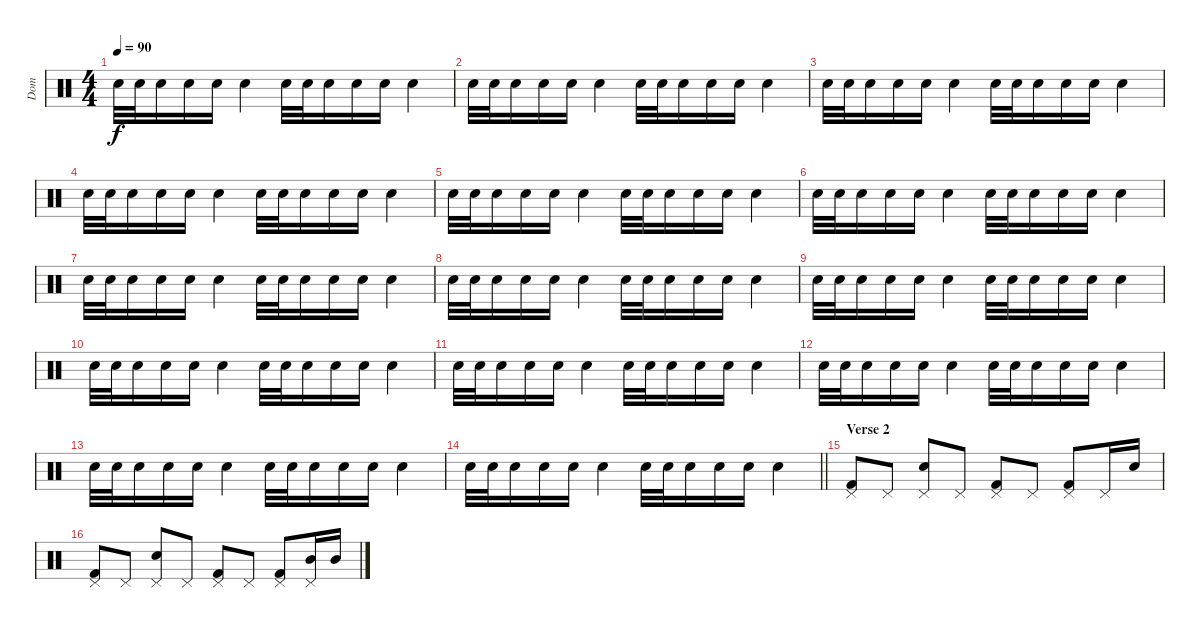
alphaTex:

\track ("Dom" "Dom") {instrument percussion}
\staff {score}
\articulation defaults
\ts (4 4)
\tempo 90
\clef neutral
\ks c "Electric Snare (hit)".32{dy f} "Electric Snare (hit)".32 "Electric Snare (hit)".16 "Electric Snare (hit)".16 "Electric Snare (hit)".16 "Electric Snare (hit)".4 "Electric Snare (hit)".32 "Electric Snare (hit)".32 "Electric Snare (hit)".16 "Electric Snare (hit)".16 "Electric Snare (hit)".16 "Electric Snare (hit)".4
|
"Electric Snare (hit)".32 "Electric Snare (hit)".32 "Electric Snare (hit)".16 "Electric Snare (hit)".16 "Electric Snare (hit)".16 "Electric Snare (hit)".4 "Electric Snare (hit)".32 "Electric Snare (hit)".32 "Electric Snare (hit)".16 "Electric Snare (hit)".16 "Electric Snare (hit)".16 "Electric Snare (hit)".4 |
"Electric Snare (hit)".32 "Electric Snare (hit)".32 "Electric Snare (hit)".16 "Electric Snare (hit)".16 "Electric Snare (hit)".16 "Electric Snare (hit)".4 "Electric Snare (hit)".32 "Electric Snare (hit)".32 "Electric Snare (hit)".16 "Electric Snare (hit)".16 "Electric Snare (hit)".16 "Electric Snare (hit)".4 |
"Electric Snare (hit)".32 "Electric Snare (hit)".32 "Electric Snare (hit)".16 "Electric Snare (hit)".16 "Electric Snare (hit)".16 "Electric Snare (hit)".4 "Electric Snare (hit)".32 "Electric Snare (hit)".32 "Electric Snare (hit)".16 "Electric Snare (hit)".16 "Electric Snare (hit)".16 "Electric Snare (hit)".4 |
"Electric Snare (hit)".32 "Electric Snare (hit)".32 "Electric Snare (hit)".16 "Electric Snare (hit)".16 "Electric Snare (hit)".16 "Electric Snare (hit)".4 "Electric Snare (hit)".32 "Electric Snare (hit)".32 "Electric Snare (hit)".16 "Electric Snare (hit)".16 "Electric Snare (hit)".16 "Electric Snare (hit)".4 |
"Electric Snare (hit)".32 "Electric Snare (hit)".32 "Electric Snare (hit)".16 "Electric Snare (hit)".16 "Electric Snare (hit)".16 "Electric Snare (hit)".4 "Electric Snare (hit)".32 "Electric Snare (hit)".32 "Electric Snare (hit)".16 "Electric Snare (hit)".16 "Electric Snare (hit)".16 "Electric Snare (hit)".4 |
"Electric Snare (hit)".32 "Electric Snare (hit)".32 "Electric Snare (hit)".16 "Electric Snare (hit)".16 "Electric Snare (hit)".16 "Electric Snare (hit)".4 "Electric Snare (hit)".32 "Electric Snare (hit)".32 "Electric Snare (hit)".16 "Electric Snare (hit)".16 "Electric Snare (hit)".16 "Electric Snare (hit)".4 |
"Electric Snare (hit)".32 "Electric Snare (hit)".32 "Electric Snare (hit)".16 "Electric Snare (hit)".16 "Electric Snare (hit)".16 "Electric Snare (hit)".4 "Electric Snare (hit)".32 "Electric Snare (hit)".32 "Electric Snare (hit)".16 "Electric Snare (hit)".16 "Electric Snare (hit)".16 "Electric Snare (hit)".4 |
"Electric Snare (hit)".32 "Electric Snare (hit)".32 "Electric Snare (hit)".16 "Electric Snare (hit)".16 "Electric Snare (hit)".16 "Electric Snare (hit)".4 "Electric Snare (hit)".32 "Electric Snare (hit)".32 "Electric Snare (hit)".16 "Electric Snare (hit)".16 "Electric Snare (hit)".16 "Electric Snare (hit)".4 |
"Electric Snare (hit)".32 "Electric Snare (hit)".32 "Electric Snare (hit)".16 "Electric Snare (hit)".16 "Electric Snare (hit)".16 "Electric Snare (hit)".4 "Electric Snare (hit)".32 "Electric Snare (hit)".32 "Electric Snare (hit)".16 "Electric Snare (hit)".16 "Electric Snare (hit)".16 "Electric Snare (hit)".4 |
"Electric Snare (hit)".32 "Electric Snare (hit)".32 "Electric Snare (hit)".16 "Electric Snare (hit)".16 "Electric Snare (hit)".16 "Electric Snare (hit)".4 "Electric Snare (hit)".32 "Electric Snare (hit)".32 "Electric Snare (hit)".16 "Electric Snare (hit)".16 "Electric Snare (hit)".16 "Electric Snare (hit)".4 |
"Electric Snare (hit)".32 "Electric Snare (hit)".32 "Electric Snare (hit)".16 "Electric Snare (hit)".16 "Electric Snare (hit)".16 "Electric Snare (hit)".4 "Electric Snare (hit)".32 "Electric Snare (hit)".32 "Electric Snare (hit)".16 "Electric Snare (hit)".16 "Electric Snare (hit)".16 "Electric Snare (hit)".4 |
"Electric Snare (hit)".32 "Electric Snare (hit)".32 "Electric Snare (hit)".16 "Electric Snare (hit)".16 "Electric Snare (hit)".16 "Electric Snare (hit)".4 "Electric Snare (hit)".32 "Electric Snare (hit)".32 "Electric Snare (hit)".16 "Electric Snare (hit)".16 "Electric Snare (hit)".16 "Electric Snare (hit)".4 |
\barLineRight lightlight "Electric Snare (hit)".32 "Electric Snare (hit)".32 "Electric Snare (hit)".16 "Electric Snare (hit)".16 "Electric Snare (hit)".16 "Electric Snare (hit)".4 "Electric Snare (hit)".32 "Electric Snare (hit)".32 "Electric Snare (hit)".16 "Electric Snare (hit)".16 "Electric Snare (hit)".16 "Electric Snare (hit)".4
|
\section ("" "Verse 2")
("Pedal Hi-Hat (hit)" "Kick (hit) 2").8 "Pedal Hi-Hat (hit)".8 ("Pedal Hi-Hat (hit)" "Electric Snare (hit)").8 "Pedal Hi-Hat (hit)".8 ("Pedal Hi-Hat (hit)" "Kick (hit) 2").8 "Pedal Hi-Hat (hit)".8 ("Pedal Hi-Hat (hit)" "Kick (hit) 2").8 "Pedal Hi-Hat (hit)".16 "Electric Snare (hit)".16 |
("Pedal Hi-Hat (hit)" "Kick (hit) 2").8 "Pedal Hi-Hat (hit)".8 ("Pedal Hi-Hat (hit)" "Electric Snare (hit)").8 "Pedal Hi-Hat (hit)".8 ("Pedal Hi-Hat (hit)" "Kick (hit) 2").8 "Pedal Hi-Hat (hit)".8 ("Pedal Hi-Hat (hit)" "Kick (hit) 2").8 ("Pedal Hi-Hat (hit)" "Mid Tom (hit)").16 "Mid Tom (hit)".16
